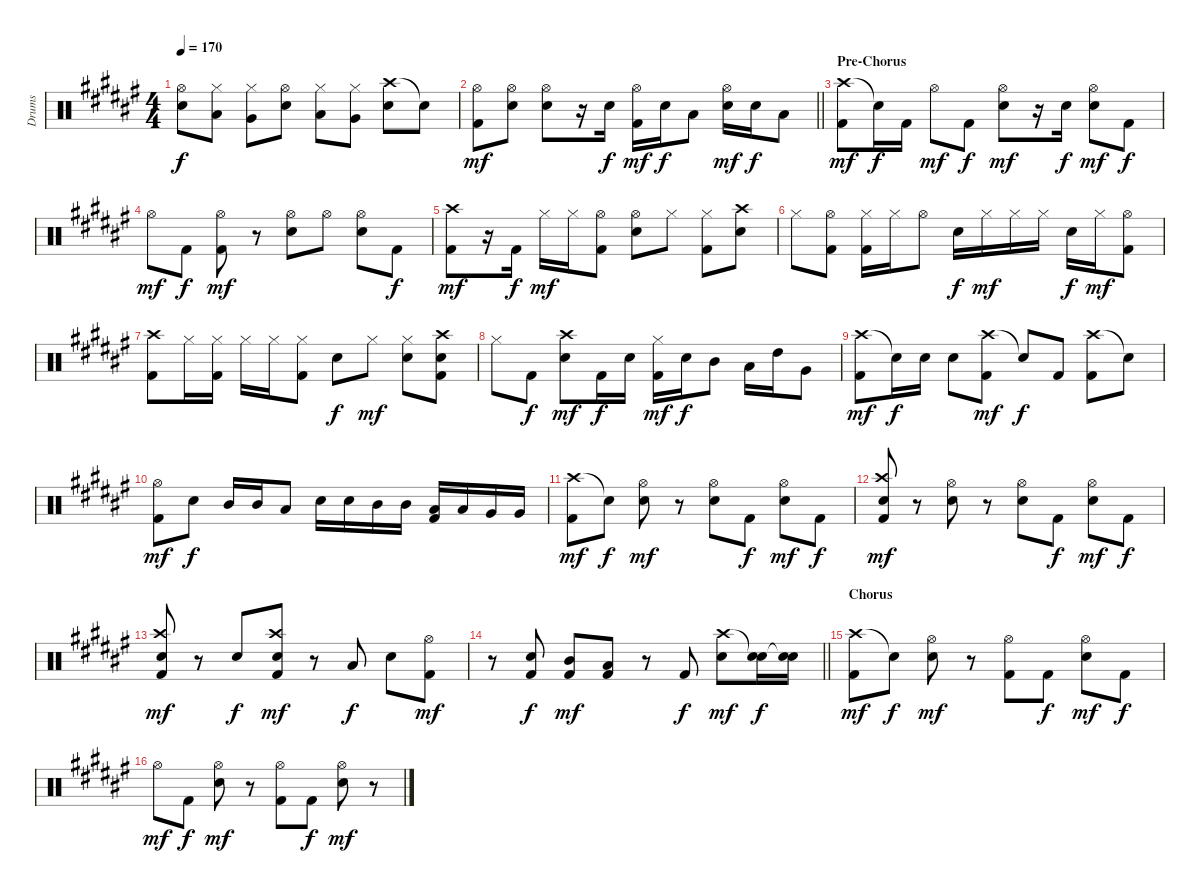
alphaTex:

\track ("Drums" "Drums") {instrument percussion}
\staff {score}
\articulation defaults
\ts (4 4)
\tempo 170
\clef neutral
\ks f#
("Hi-Hat (open)" "Snare (hit) 2").8{dy f} ("Hi-Hat (closed)" "Low Tom (hit)").8 ("Hi-Hat (closed)" "Very Low Tom (hit)").8 ("Hi-Hat (open)" "Snare (hit) 2").8 ("Hi-Hat (closed)" "Low Tom (hit)").8 ("Hi-Hat (closed)" "Very Low Tom (hit)").8 ("Crash high (hit)" "Snare (hit) 2").8 "Snare (hit)"{t}.8 |
\barLineRight lightlight
("Hi-Hat (open)" "Kick (hit) 2").8{dy mf} ("Hi-Hat (open)" "Snare (hit) 2").8 ("Hi-Hat (open)" "Snare (hit) 2").8 r.16 "Snare (hit) 2".16{dy f} ("Hi-Hat (open)" "Kick (hit) 2").16{dy mf} "Snare (hit) 2".16{dy f} "Low Tom (hit)".8 ("Hi-Hat (open)" "Snare (hit) 2").16{dy mf} "Snare (hit) 2".16{dy f} "Low Tom (hit)".8 |
\section ("" "Pre-Chorus")
("Crash high (hit)" "Kick (hit) 2").8{dy mf} "Snare (hit)"{t}.16{dy f} "Kick (hit) 2".16 "Hi-Hat (open)".8{dy mf} "Kick (hit) 2".8{dy f} ("Hi-Hat (open)" "Snare (hit) 2").8{dy mf} r.16 "Snare (hit) 2".16{dy f} ("Hi-Hat (open)" "Snare (hit) 2").8{dy mf} "Kick (hit) 2".8{dy f} |
"Hi-Hat (open)".8{dy mf} "Kick (hit) 2".8{dy f} ("Hi-Hat (open)" "Kick (hit) 2").8{dy mf} r.8 ("Hi-Hat (open)" "Snare (hit) 2").8 "Hi-Hat (open)".8 ("Hi-Hat (open)" "Snare (hit) 2").8 "Kick (hit) 2".8{dy f} |
("Crash high (hit)" "Kick (hit) 2").8{dy mf} r.16 "Kick (hit) 2".16{dy f} "Hi-Hat (closed)".16{dy mf} "Hi-Hat (closed)".16 ("Hi-Hat (open)" "Kick (hit) 2").8 ("Hi-Hat (open)" "Snare (hit) 2").8 "Hi-Hat (closed)".8 ("Hi-Hat (closed)" "Kick (hit) 2").8 ("Crash high (hit)" "Snare (hit) 2").8 |
"Hi-Hat (closed)".8 ("Hi-Hat (open)" "Kick (hit) 2").8 ("Hi-Hat (closed)" "Kick (hit) 2").16 "Hi-Hat (closed)".16 "Hi-Hat (open)".8 "Snare (hit) 2".16{dy f} "Hi-Hat (closed)".16{dy mf} "Hi-Hat (closed)".16 "Hi-Hat (closed)".16 "Snare (hit) 2".16{dy f} "Hi-Hat (closed)".16{dy mf} ("Hi-Hat (open)" "Kick (hit) 2").8 |
("Crash high (hit)" "Kick (hit) 2").8 "Hi-Hat (closed)".16 ("Hi-Hat (closed)" "Kick (hit) 2").16 "Hi-Hat (closed)".16 "Hi-Hat (closed)".16 ("Hi-Hat (closed)" "Kick (hit) 2").8 "Snare (hit) 2".8{dy f} "Hi-Hat (closed)".8{dy mf} ("Hi-Hat (closed)" "Snare (hit) 2").8 ("Crash high (hit)" "Snare (hit) 2" "Kick (hit) 2").8 |
"Hi-Hat (closed)".8 "Kick (hit) 2".8{dy f} ("Crash high (hit)" "Snare (hit) 2").8{dy mf} "Kick (hit) 2".16{dy f} "Snare (hit) 2".16 ("Hi-Hat (closed)" "Kick (hit) 2").16{dy mf} "Snare (hit) 2".16{dy f} "Mid Tom (hit)".8 "Low Tom (hit)".16 "High Tom (hit)".16 "Very Low Tom (hit)".8 |
("Crash high (hit)" "Kick (hit) 2").8{dy mf} "Snare (hit)"{t}.16{dy f} "Snare (hit) 2".16 "Snare (hit) 2".8 ("Crash high (hit)" "Kick (hit) 2").8{dy mf} "Snare (hit)"{t}.8{dy f} "Kick (hit) 2".8 ("Crash high (hit)" "Kick (hit) 2").8 "Snare (hit)"{t}.8 |
("Hi-Hat (open)" "Kick (hit) 2").8{dy mf} "Snare (hit) 2".8{dy f} "Mid Tom (hit)".16 "Mid Tom (hit)".16 "Low Tom (hit)".8 "Snare (hit) 2".16 "Snare (hit) 2".16 "Mid Tom (hit)".16 "Mid Tom (hit)".16 ("Low Tom (hit)" "Kick (hit) 2").16 "Low Tom (hit)".16 "Very Low Tom (hit)".16 "Very Low Tom (hit)".16 |
("Crash high (hit)" "Kick (hit) 2").8{dy mf} "Snare (hit)"{t}.8{dy f} ("Hi-Hat (open)" "Snare (hit) 2").8{dy mf} r.8 ("Hi-Hat (open)" "Snare (hit) 2").8 "Kick (hit) 2".8{dy f} ("Hi-Hat (open)" "Snare (hit) 2").8{dy mf} "Kick (hit) 2".8{dy f} |
("Crash high (hit)" "Snare (hit) 2" "Kick (hit) 2").8{dy mf} r.8 ("Hi-Hat (open)" "Snare (hit) 2").8 r.8 ("Hi-Hat (open)" "Snare (hit) 2").8 "Kick (hit) 2".8{dy f} ("Hi-Hat (open)" "Snare (hit) 2").8{dy mf} "Kick (hit) 2".8{dy f} |
("Crash high (hit)" "Snare (hit) 2" "Kick (hit) 2").8{dy mf} r.8 "Snare (hit) 2".8{dy f} ("Crash high (hit)" "Snare (hit) 2" "Kick (hit) 2").8{dy mf} r.8 "Low Tom (hit)".8{dy f} "Snare (hit) 2".8 ("Hi-Hat (open)" "Kick (hit) 2").8{dy mf} |
\barLineRight lightlight
r.8 ("Snare (hit) 2" "Kick (hit) 2").8{dy f} ("Mid Tom (hit)" "Kick (hit) 2").8{dy mf} ("Low Tom (hit)" "Kick (hit) 2").8 r.8 "Kick (hit) 2".8{dy f} ("Crash high (hit)" "Snare (hit) 2").8{dy mf} ("Snare (hit) 2"{t} "Snare (hit) 2").16{dy f} ("Snare (hit) 2"{t} "Snare (hit) 2").16 |
\section ("" "Chorus")
("Crash high (hit)" "Kick (hit) 2").8{dy mf} "Snare (hit)"{t}.8{dy f} ("Hi-Hat (open)" "Snare (hit) 2").8{dy mf} r.8 ("Hi-Hat (open)" "Kick (hit) 2").8 "Kick (hit) 2".8{dy f} ("Hi-Hat (open)" "Snare (hit) 2").8{dy mf} "Kick (hit) 2".8{dy f} |
"Hi-Hat (open)".8{dy mf} "Kick (hit) 2".8{dy f} ("Hi-Hat (open)" "Snare (hit) 2").8{dy mf} r.8 ("Hi-Hat (open)" "Kick (hit) 2").8 "Kick (hit) 2".8{dy f} ("Hi-Hat (open)" "Snare (hit) 2").8{dy mf} r.8
